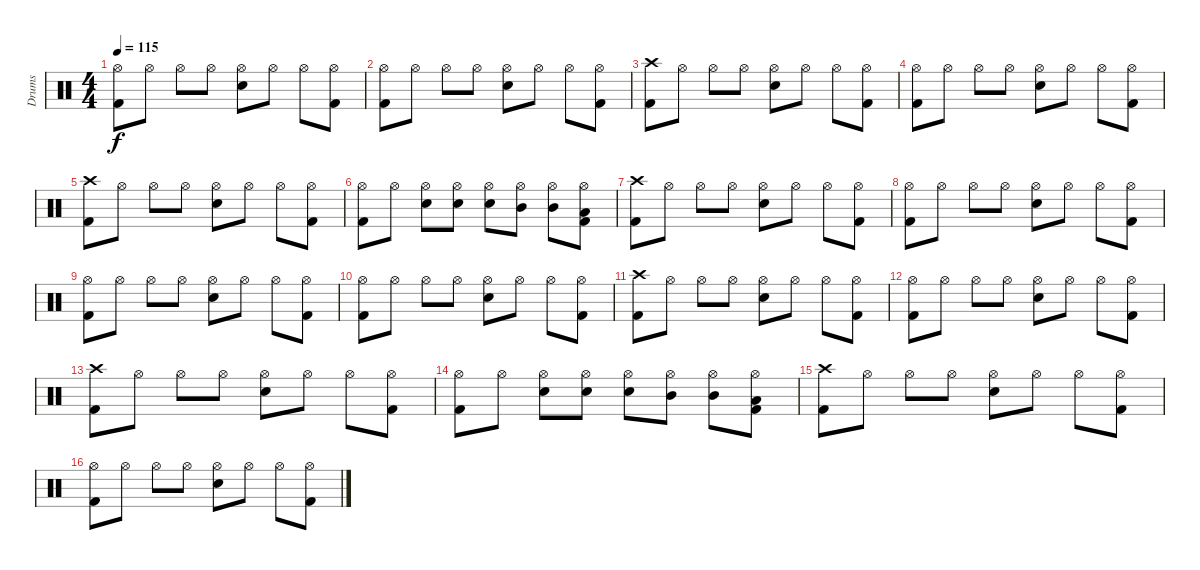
\track ("Drums" "Drums") {instrument percussion}
\staff
\articulation defaults
\ts (4 4)
\tempo 115
\clef neutral
\ks c
("Hi-Hat (open)" "Kick (hit) 2").8{dy f} "Hi-Hat (open)".8 "Hi-Hat (open)".8 "Hi-Hat (open)".8 ("Snare (hit) 2" "Hi-Hat (open)").8 "Hi-Hat (open)".8 "Hi-Hat (open)".8 ("Hi-Hat (open)" "Kick (hit) 2").8 |
("Hi-Hat (open)" "Kick (hit) 2").8 "Hi-Hat (open)".8 "Hi-Hat (open)".8 "Hi-Hat (open)".8 ("Snare (hit) 2" "Hi-Hat (open)").8 "Hi-Hat (open)".8 "Hi-Hat (open)".8 ("Hi-Hat (open)" "Kick (hit) 2").8 |
("Crash high (hit)" "Kick (hit) 2").8 "Hi-Hat (open)".8 "Hi-Hat (open)".8 "Hi-Hat (open)".8 ("Snare (hit) 2" "Hi-Hat (open)").8 "Hi-Hat (open)".8 "Hi-Hat (open)".8 ("Hi-Hat (open)" "Kick (hit) 2").8 |
("Hi-Hat (open)" "Kick (hit) 2").8 "Hi-Hat (open)".8 "Hi-Hat (open)".8 "Hi-Hat (open)".8 ("Snare (hit) 2" "Hi-Hat (open)").8 "Hi-Hat (open)".8 "Hi-Hat (open)".8 ("Hi-Hat (open)" "Kick (hit) 2").8 |
("Crash high (hit)" "Kick (hit) 2").8 "Hi-Hat (open)".8 "Hi-Hat (open)".8 "Hi-Hat (open)".8 ("Snare (hit) 2" "Hi-Hat (open)").8 "Hi-Hat (open)".8 "Hi-Hat (open)".8 ("Hi-Hat (open)" "Kick (hit) 2").8 |
("Hi-Hat (open)" "Kick (hit) 2").8 "Hi-Hat (open)".8 ("Snare (hit) 2" "Hi-Hat (open)").8 ("Snare (hit) 2" "Hi-Hat (open)").8 ("Snare (hit) 2" "Hi-Hat (open)").8 ("Mid Tom (hit)" "Hi-Hat (open)").8 ("Mid Tom (hit)" "Hi-Hat (open)").8 ("Low Tom (hit)" "Hi-Hat (open)" "Kick (hit) 2").8 |
("Crash high (hit)" "Kick (hit) 2").8 "Hi-Hat (open)".8 "Hi-Hat (open)".8 "Hi-Hat (open)".8 ("Snare (hit) 2" "Hi-Hat (open)").8 "Hi-Hat (open)".8 "Hi-Hat (open)".8 ("Hi-Hat (open)" "Kick (hit) 2").8 |
("Hi-Hat (open)" "Kick (hit) 2").8 "Hi-Hat (open)".8 "Hi-Hat (open)".8 "Hi-Hat (open)".8 ("Snare (hit) 2" "Hi-Hat (open)").8 "Hi-Hat (open)".8 "Hi-Hat (open)".8 ("Hi-Hat (open)" "Kick (hit) 2").8 |
("Hi-Hat (open)" "Kick (hit) 2").8 "Hi-Hat (open)".8 "Hi-Hat (open)".8 "Hi-Hat (open)".8 ("Snare (hit) 2" "Hi-Hat (open)").8 "Hi-Hat (open)".8 "Hi-Hat (open)".8 ("Hi-Hat (open)" "Kick (hit) 2").8 |
("Hi-Hat (open)" "Kick (hit) 2").8 "Hi-Hat (open)".8 "Hi-Hat (open)".8 "Hi-Hat (open)".8 ("Snare (hit) 2" "Hi-Hat (open)").8 "Hi-Hat (open)".8 "Hi-Hat (open)".8 ("Hi-Hat (open)" "Kick (hit) 2").8 |
("Crash high (hit)" "Kick (hit) 2").8 "Hi-Hat (open)".8 "Hi-Hat (open)".8 "Hi-Hat (open)".8 ("Snare (hit) 2" "Hi-Hat (open)").8 "Hi-Hat (open)".8 "Hi-Hat (open)".8 ("Hi-Hat (open)" "Kick (hit) 2").8 |
("Hi-Hat (open)" "Kick (hit) 2").8 "Hi-Hat (open)".8 "Hi-Hat (open)".8 "Hi-Hat (open)".8 ("Snare (hit) 2" "Hi-Hat (open)").8 "Hi-Hat (open)".8 "Hi-Hat (open)".8 ("Hi-Hat (open)" "Kick (hit) 2").8 |
("Crash high (hit)" "Kick (hit) 2").8 "Hi-Hat (open)".8 "Hi-Hat (open)".8 "Hi-Hat (open)".8 ("Snare (hit) 2" "Hi-Hat (open)").8 "Hi-Hat (open)".8 "Hi-Hat (open)".8 ("Hi-Hat (open)" "Kick (hit) 2").8 |
("Hi-Hat (open)" "Kick (hit) 2").8 "Hi-Hat (open)".8 ("Snare (hit) 2" "Hi-Hat (open)").8 ("Snare (hit) 2" "Hi-Hat (open)").8 ("Snare (hit) 2" "Hi-Hat (open)").8 ("Mid Tom (hit)" "Hi-Hat (open)").8 ("Mid Tom (hit)" "Hi-Hat (open)").8 ("Low Tom (hit)" "Hi-Hat (open)" "Kick (hit) 2").8 |
("Crash high (hit)" "Kick (hit) 2").8 "Hi-Hat (open)".8 "Hi-Hat (open)".8 "Hi-Hat (open)".8 ("Snare (hit) 2" "Hi-Hat (open)").8 "Hi-Hat (open)".8 "Hi-Hat (open)".8 ("Hi-Hat (open)" "Kick (hit) 2").8 |
("Hi-Hat (open)" "Kick (hit) 2").8 "Hi-Hat (open)".8 "Hi-Hat (open)".8 "Hi-Hat (open)".8 ("Snare (hit) 2" "Hi-Hat (open)").8 "Hi-Hat (open)".8 "Hi-Hat (open)".8 ("Hi-Hat (open)" "Kick (hit) 2").8
